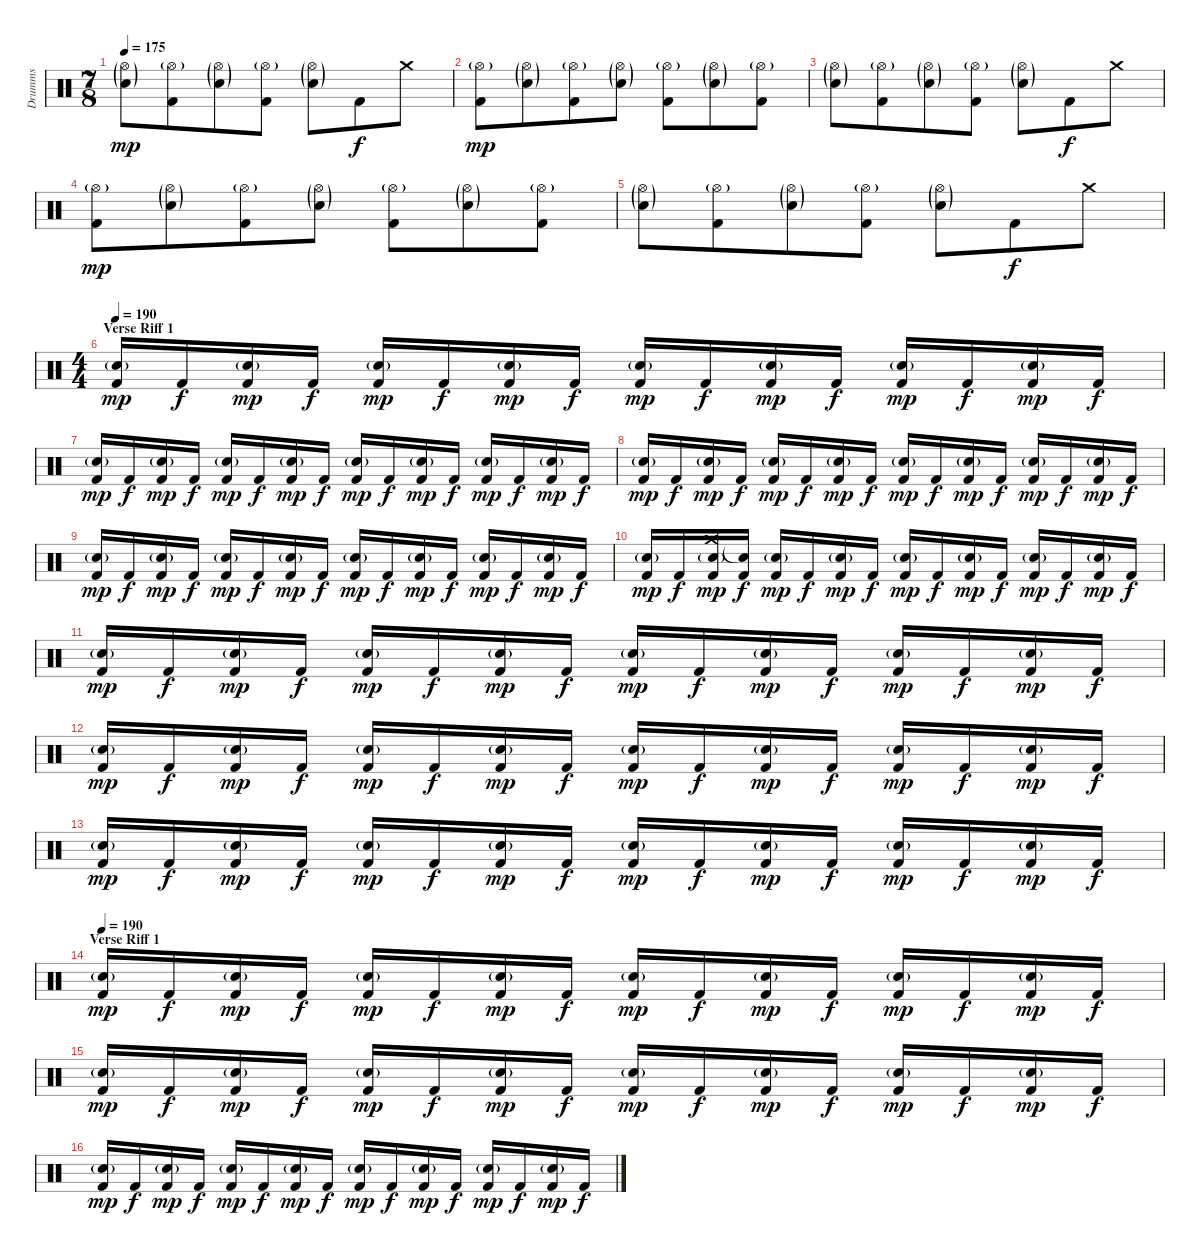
\track ("Drumms" "Drumms") {instrument percussion}
\staff {score}
\articulation defaults
\ts (7 8)
\tempo 175
\clef neutral
\ks c
("Hi-Hat (open)"{g} "Snare (hit) 2"{g}).8{dy mp} ("Hi-Hat (open)"{g} "Kick (hit) 2").8 ("Hi-Hat (open)"{g} "Snare (hit) 2"{g}).8 ("Hi-Hat (open)"{g} "Kick (hit) 2").8 ("Hi-Hat (open)"{g} "Snare (hit) 2"{g}).8 "Kick (hit) 2".8{dy f} "Crash medium (hit)".8 |
("Hi-Hat (open)"{g} "Kick (hit) 2").8{dy mp} ("Hi-Hat (open)"{g} "Snare (hit) 2"{g}).8 ("Hi-Hat (open)"{g} "Kick (hit) 2").8 ("Hi-Hat (open)"{g} "Snare (hit) 2"{g}).8 ("Hi-Hat (open)"{g} "Kick (hit) 2").8 ("Hi-Hat (open)"{g} "Snare (hit) 2"{g}).8 ("Hi-Hat (open)"{g} "Kick (hit) 2").8 |
("Hi-Hat (open)"{g} "Snare (hit) 2"{g}).8 ("Hi-Hat (open)"{g} "Kick (hit) 2").8 ("Hi-Hat (open)"{g} "Snare (hit) 2"{g}).8 ("Hi-Hat (open)"{g} "Kick (hit) 2").8 ("Hi-Hat (open)"{g} "Snare (hit) 2"{g}).8 "Kick (hit) 2".8{dy f} "Crash medium (hit)".8 |
("Hi-Hat (open)"{g} "Kick (hit) 2").8{dy mp} ("Hi-Hat (open)"{g} "Snare (hit) 2"{g}).8 ("Hi-Hat (open)"{g} "Kick (hit) 2").8 ("Hi-Hat (open)"{g} "Snare (hit) 2"{g}).8 ("Hi-Hat (open)"{g} "Kick (hit) 2").8 ("Hi-Hat (open)"{g} "Snare (hit) 2"{g}).8 ("Hi-Hat (open)"{g} "Kick (hit) 2").8 |
("Hi-Hat (open)"{g} "Snare (hit) 2"{g}).8 ("Hi-Hat (open)"{g} "Kick (hit) 2").8 ("Hi-Hat (open)"{g} "Snare (hit) 2"{g}).8 ("Hi-Hat (open)"{g} "Kick (hit) 2").8 ("Hi-Hat (open)"{g} "Snare (hit) 2"{g}).8 "Kick (hit) 2".8{dy f} "Crash medium (hit)".8 |
\ts (4 4)
\section ("" "Verse Riff 1")
\tempo 190
("Electric Snare (hit)"{g} "Kick (hit) 2").16{dy mp} "Kick (hit) 2".16{dy f} ("Electric Snare (hit)"{g} "Kick (hit) 2").16{dy mp} "Kick (hit) 2".16{dy f} ("Electric Snare (hit)"{g} "Kick (hit) 2").16{dy mp} "Kick (hit) 2".16{dy f} ("Electric Snare (hit)"{g} "Kick (hit) 2").16{dy mp} "Kick (hit) 2".16{dy f} ("Electric Snare (hit)"{g} "Kick (hit) 2").16{dy mp} "Kick (hit) 2".16{dy f} ("Electric Snare (hit)"{g} "Kick (hit) 2").16{dy mp} "Kick (hit) 2".16{dy f} ("Electric Snare (hit)"{g} "Kick (hit) 2").16{dy mp} "Kick (hit) 2".16{dy f} ("Electric Snare (hit)"{g} "Kick (hit) 2").16{dy mp} "Kick (hit) 2".16{dy f} |
("Electric Snare (hit)"{g} "Kick (hit) 2").16{dy mp} "Kick (hit) 2".16{dy f} ("Electric Snare (hit)"{g} "Kick (hit) 2").16{dy mp} "Kick (hit) 2".16{dy f} ("Electric Snare (hit)"{g} "Kick (hit) 2").16{dy mp} "Kick (hit) 2".16{dy f} ("Electric Snare (hit)"{g} "Kick (hit) 2").16{dy mp} "Kick (hit) 2".16{dy f} ("Electric Snare (hit)"{g} "Kick (hit) 2").16{dy mp} "Kick (hit) 2".16{dy f} ("Electric Snare (hit)"{g} "Kick (hit) 2").16{dy mp} "Kick (hit) 2".16{dy f} ("Electric Snare (hit)"{g} "Kick (hit) 2").16{dy mp} "Kick (hit) 2".16{dy f} ("Electric Snare (hit)"{g} "Kick (hit) 2").16{dy mp} "Kick (hit) 2".16{dy f} |
("Electric Snare (hit)"{g} "Kick (hit) 2").16{dy mp} "Kick (hit) 2".16{dy f} ("Electric Snare (hit)"{g} "Kick (hit) 2").16{dy mp} "Kick (hit) 2".16{dy f} ("Electric Snare (hit)"{g} "Kick (hit) 2").16{dy mp} "Kick (hit) 2".16{dy f} ("Electric Snare (hit)"{g} "Kick (hit) 2").16{dy mp} "Kick (hit) 2".16{dy f} ("Electric Snare (hit)"{g} "Kick (hit) 2").16{dy mp} "Kick (hit) 2".16{dy f} ("Electric Snare (hit)"{g} "Kick (hit) 2").16{dy mp} "Kick (hit) 2".16{dy f} ("Electric Snare (hit)"{g} "Kick (hit) 2").16{dy mp} "Kick (hit) 2".16{dy f} ("Electric Snare (hit)"{g} "Kick (hit) 2").16{dy mp} "Kick (hit) 2".16{dy f} |
("Electric Snare (hit)"{g} "Kick (hit) 2").16{dy mp} "Kick (hit) 2".16{dy f} ("Electric Snare (hit)"{g} "Kick (hit) 2").16{dy mp} "Kick (hit) 2".16{dy f} ("Electric Snare (hit)"{g} "Kick (hit) 2").16{dy mp} "Kick (hit) 2".16{dy f} ("Electric Snare (hit)"{g} "Kick (hit) 2").16{dy mp} "Kick (hit) 2".16{dy f} ("Electric Snare (hit)"{g} "Kick (hit) 2").16{dy mp} "Kick (hit) 2".16{dy f} ("Electric Snare (hit)"{g} "Kick (hit) 2").16{dy mp} "Kick (hit) 2".16{dy f} ("Electric Snare (hit)"{g} "Kick (hit) 2").16{dy mp} "Kick (hit) 2".16{dy f} ("Electric Snare (hit)"{g} "Kick (hit) 2").16{dy mp} "Kick (hit) 2".16{dy f} |
("Electric Snare (hit)"{g} "Kick (hit) 2").16{dy mp} "Kick (hit) 2".16{dy f} ("Crash medium (hit)" "Electric Snare (hit)"{g} "Kick (hit) 2").16{dy mp} ("Snare (hit)"{t} "Kick (hit) 2").16{dy f} ("Electric Snare (hit)"{g} "Kick (hit) 2").16{dy mp} "Kick (hit) 2".16{dy f} ("Electric Snare (hit)"{g} "Kick (hit) 2").16{dy mp} "Kick (hit) 2".16{dy f} ("Electric Snare (hit)"{g} "Kick (hit) 2").16{dy mp} "Kick (hit) 2".16{dy f} ("Electric Snare (hit)"{g} "Kick (hit) 2").16{dy mp} "Kick (hit) 2".16{dy f} ("Electric Snare (hit)"{g} "Kick (hit) 2").16{dy mp} "Kick (hit) 2".16{dy f} ("Electric Snare (hit)"{g} "Kick (hit) 2").16{dy mp} "Kick (hit) 2".16{dy f} |
("Electric Snare (hit)"{g} "Kick (hit) 2").16{dy mp} "Kick (hit) 2".16{dy f} ("Electric Snare (hit)"{g} "Kick (hit) 2").16{dy mp} "Kick (hit) 2".16{dy f} ("Electric Snare (hit)"{g} "Kick (hit) 2").16{dy mp} "Kick (hit) 2".16{dy f} ("Electric Snare (hit)"{g} "Kick (hit) 2").16{dy mp} "Kick (hit) 2".16{dy f} ("Electric Snare (hit)"{g} "Kick (hit) 2").16{dy mp} "Kick (hit) 2".16{dy f} ("Electric Snare (hit)"{g} "Kick (hit) 2").16{dy mp} "Kick (hit) 2".16{dy f} ("Electric Snare (hit)"{g} "Kick (hit) 2").16{dy mp} "Kick (hit) 2".16{dy f} ("Electric Snare (hit)"{g} "Kick (hit) 2").16{dy mp} "Kick (hit) 2".16{dy f} |
("Electric Snare (hit)"{g} "Kick (hit) 2").16{dy mp} "Kick (hit) 2".16{dy f} ("Electric Snare (hit)"{g} "Kick (hit) 2").16{dy mp} "Kick (hit) 2".16{dy f} ("Electric Snare (hit)"{g} "Kick (hit) 2").16{dy mp} "Kick (hit) 2".16{dy f} ("Electric Snare (hit)"{g} "Kick (hit) 2").16{dy mp} "Kick (hit) 2".16{dy f} ("Electric Snare (hit)"{g} "Kick (hit) 2").16{dy mp} "Kick (hit) 2".16{dy f} ("Electric Snare (hit)"{g} "Kick (hit) 2").16{dy mp} "Kick (hit) 2".16{dy f} ("Electric Snare (hit)"{g} "Kick (hit) 2").16{dy mp} "Kick (hit) 2".16{dy f} ("Electric Snare (hit)"{g} "Kick (hit) 2").16{dy mp} "Kick (hit) 2".16{dy f} |
("Electric Snare (hit)"{g} "Kick (hit) 2").16{dy mp} "Kick (hit) 2".16{dy f} ("Electric Snare (hit)"{g} "Kick (hit) 2").16{dy mp} "Kick (hit) 2".16{dy f} ("Electric Snare (hit)"{g} "Kick (hit) 2").16{dy mp} "Kick (hit) 2".16{dy f} ("Electric Snare (hit)"{g} "Kick (hit) 2").16{dy mp} "Kick (hit) 2".16{dy f} ("Electric Snare (hit)"{g} "Kick (hit) 2").16{dy mp} "Kick (hit) 2".16{dy f} ("Electric Snare (hit)"{g} "Kick (hit) 2").16{dy mp} "Kick (hit) 2".16{dy f} ("Electric Snare (hit)"{g} "Kick (hit) 2").16{dy mp} "Kick (hit) 2".16{dy f} ("Electric Snare (hit)"{g} "Kick (hit) 2").16{dy mp} "Kick (hit) 2".16{dy f} |
\section ("" "Verse Riff 1")
\tempo 190
("Electric Snare (hit)"{g} "Kick (hit) 2").16{dy mp} "Kick (hit) 2".16{dy f} ("Electric Snare (hit)"{g} "Kick (hit) 2").16{dy mp} "Kick (hit) 2".16{dy f} ("Electric Snare (hit)"{g} "Kick (hit) 2").16{dy mp} "Kick (hit) 2".16{dy f} ("Electric Snare (hit)"{g} "Kick (hit) 2").16{dy mp} "Kick (hit) 2".16{dy f} ("Electric Snare (hit)"{g} "Kick (hit) 2").16{dy mp} "Kick (hit) 2".16{dy f} ("Electric Snare (hit)"{g} "Kick (hit) 2").16{dy mp} "Kick (hit) 2".16{dy f} ("Electric Snare (hit)"{g} "Kick (hit) 2").16{dy mp} "Kick (hit) 2".16{dy f} ("Electric Snare (hit)"{g} "Kick (hit) 2").16{dy mp} "Kick (hit) 2".16{dy f} |
("Electric Snare (hit)"{g} "Kick (hit) 2").16{dy mp} "Kick (hit) 2".16{dy f} ("Electric Snare (hit)"{g} "Kick (hit) 2").16{dy mp} "Kick (hit) 2".16{dy f} ("Electric Snare (hit)"{g} "Kick (hit) 2").16{dy mp} "Kick (hit) 2".16{dy f} ("Electric Snare (hit)"{g} "Kick (hit) 2").16{dy mp} "Kick (hit) 2".16{dy f} ("Electric Snare (hit)"{g} "Kick (hit) 2").16{dy mp} "Kick (hit) 2".16{dy f} ("Electric Snare (hit)"{g} "Kick (hit) 2").16{dy mp} "Kick (hit) 2".16{dy f} ("Electric Snare (hit)"{g} "Kick (hit) 2").16{dy mp} "Kick (hit) 2".16{dy f} ("Electric Snare (hit)"{g} "Kick (hit) 2").16{dy mp} "Kick (hit) 2".16{dy f} |
("Electric Snare (hit)"{g} "Kick (hit) 2").16{dy mp} "Kick (hit) 2".16{dy f} ("Electric Snare (hit)"{g} "Kick (hit) 2").16{dy mp} "Kick (hit) 2".16{dy f} ("Electric Snare (hit)"{g} "Kick (hit) 2").16{dy mp} "Kick (hit) 2".16{dy f} ("Electric Snare (hit)"{g} "Kick (hit) 2").16{dy mp} "Kick (hit) 2".16{dy f} ("Electric Snare (hit)"{g} "Kick (hit) 2").16{dy mp} "Kick (hit) 2".16{dy f} ("Electric Snare (hit)"{g} "Kick (hit) 2").16{dy mp} "Kick (hit) 2".16{dy f} ("Electric Snare (hit)"{g} "Kick (hit) 2").16{dy mp} "Kick (hit) 2".16{dy f} ("Electric Snare (hit)"{g} "Kick (hit) 2").16{dy mp} "Kick (hit) 2".16{dy f}
